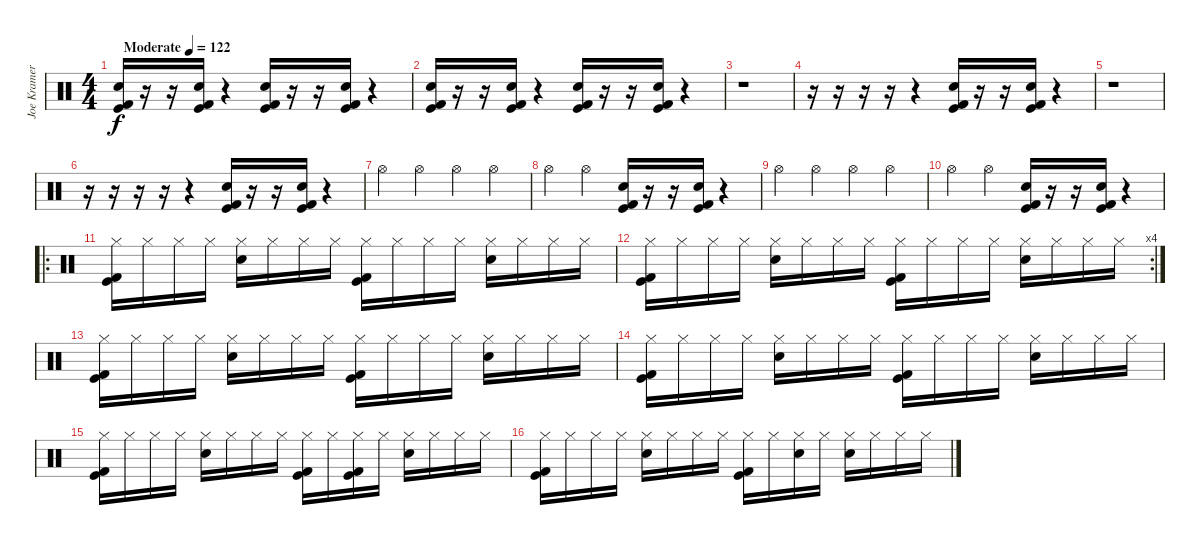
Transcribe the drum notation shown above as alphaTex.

\track ("Joe Kramer" "Joe Kramer") {instrument percussion}
\staff {score}
\articulation defaults
\ts (4 4)
\tempo (122 "Moderate")
\clef neutral
\ks c
("Kick (hit)" "Snare (hit) 2" "Kick (hit) 2").16{dy f} r.16 r.16 ("Kick (hit)" "Snare (hit) 2" "Kick (hit) 2").16 r.4 ("Kick (hit)" "Snare (hit) 2" "Kick (hit) 2").16 r.16 r.16 ("Kick (hit)" "Snare (hit) 2" "Kick (hit) 2").16 r.4 |
("Kick (hit)" "Snare (hit) 2" "Kick (hit) 2").16 r.16 r.16 ("Kick (hit)" "Snare (hit) 2" "Kick (hit) 2").16 r.4 ("Kick (hit)" "Snare (hit) 2" "Kick (hit) 2").16 r.16 r.16 ("Kick (hit)" "Snare (hit) 2" "Kick (hit) 2").16 r.4 |
r.1 |
r.16 r.16 r.16 r.16 r.4 ("Kick (hit)" "Snare (hit) 2" "Kick (hit) 2").16 r.16 r.16 ("Kick (hit)" "Snare (hit) 2" "Kick (hit) 2").16 r.4 |
r.1 |
r.16 r.16 r.16 r.16 r.4 ("Kick (hit)" "Snare (hit) 2" "Kick (hit) 2").16 r.16 r.16 ("Kick (hit)" "Snare (hit) 2" "Kick (hit) 2").16 r.4 |
"Hi-Hat (open)".4 "Hi-Hat (open)".4 "Hi-Hat (open)".4 "Hi-Hat (open)".4 |
"Hi-Hat (open)".4 "Hi-Hat (open)".4 ("Kick (hit)" "Snare (hit) 2" "Kick (hit) 2").16 r.16 r.16 ("Kick (hit)" "Snare (hit) 2" "Kick (hit) 2").16 r.4 |
"Hi-Hat (open)".4 "Hi-Hat (open)".4 "Hi-Hat (open)".4 "Hi-Hat (open)".4 |
"Hi-Hat (open)".4 "Hi-Hat (open)".4 ("Kick (hit)" "Snare (hit) 2" "Kick (hit) 2").16 r.16 r.16 ("Kick (hit)" "Snare (hit) 2" "Kick (hit) 2").16 r.4 |
\ro
("Hi-Hat (closed)" "Kick (hit)" "Kick (hit) 2").16 "Hi-Hat (closed)".16 "Hi-Hat (closed)".16 "Hi-Hat (closed)".16 ("Hi-Hat (closed)" "Snare (hit) 2").16 "Hi-Hat (closed)".16 "Hi-Hat (closed)".16 "Hi-Hat (closed)".16 ("Hi-Hat (closed)" "Kick (hit)" "Kick (hit) 2").16 "Hi-Hat (closed)".16 "Hi-Hat (closed)".16 "Hi-Hat (closed)".16 ("Hi-Hat (closed)" "Snare (hit) 2").16 "Hi-Hat (closed)".16 "Hi-Hat (closed)".16 "Hi-Hat (closed)".16 |
\rc 4
("Hi-Hat (closed)" "Kick (hit)" "Kick (hit) 2").16 "Hi-Hat (closed)".16 "Hi-Hat (closed)".16 "Hi-Hat (closed)".16 ("Hi-Hat (closed)" "Snare (hit) 2").16 "Hi-Hat (closed)".16 "Hi-Hat (closed)".16 "Hi-Hat (closed)".16 ("Hi-Hat (closed)" "Kick (hit)" "Kick (hit) 2").16 "Hi-Hat (closed)".16 "Hi-Hat (closed)".16 "Hi-Hat (closed)".16 ("Hi-Hat (closed)" "Snare (hit) 2").16 "Hi-Hat (closed)".16 "Hi-Hat (closed)".16 "Hi-Hat (closed)".16 |
("Hi-Hat (closed)" "Kick (hit)" "Kick (hit) 2").16 "Hi-Hat (closed)".16 "Hi-Hat (closed)".16 "Hi-Hat (closed)".16 ("Hi-Hat (closed)" "Snare (hit) 2").16 "Hi-Hat (closed)".16 "Hi-Hat (closed)".16 "Hi-Hat (closed)".16 ("Hi-Hat (closed)" "Kick (hit)" "Kick (hit) 2").16 "Hi-Hat (closed)".16 "Hi-Hat (closed)".16 "Hi-Hat (closed)".16 ("Hi-Hat (closed)" "Snare (hit) 2").16 "Hi-Hat (closed)".16 "Hi-Hat (closed)".16 "Hi-Hat (closed)".16 |
("Hi-Hat (closed)" "Kick (hit)" "Kick (hit) 2").16 "Hi-Hat (closed)".16 "Hi-Hat (closed)".16 "Hi-Hat (closed)".16 ("Hi-Hat (closed)" "Snare (hit) 2").16 "Hi-Hat (closed)".16 "Hi-Hat (closed)".16 "Hi-Hat (closed)".16 ("Hi-Hat (closed)" "Kick (hit)" "Kick (hit) 2").16 "Hi-Hat (closed)".16 "Hi-Hat (closed)".16 "Hi-Hat (closed)".16 ("Hi-Hat (closed)" "Snare (hit) 2").16 "Hi-Hat (closed)".16 "Hi-Hat (closed)".16 "Hi-Hat (closed)".16 |
("Hi-Hat (closed)" "Kick (hit)" "Kick (hit) 2").16 "Hi-Hat (closed)".16 "Hi-Hat (closed)".16 "Hi-Hat (closed)".16 ("Hi-Hat (closed)" "Snare (hit) 2").16 "Hi-Hat (closed)".16 "Hi-Hat (closed)".16 "Hi-Hat (closed)".16 ("Hi-Hat (closed)" "Kick (hit)" "Kick (hit) 2").16 "Hi-Hat (closed)".16 ("Hi-Hat (closed)" "Kick (hit)" "Kick (hit) 2").16 "Hi-Hat (closed)".16 ("Hi-Hat (closed)" "Snare (hit) 2").16 "Hi-Hat (closed)".16 "Hi-Hat (closed)".16 "Hi-Hat (closed)".16 |
("Hi-Hat (closed)" "Kick (hit)" "Kick (hit) 2").16 "Hi-Hat (closed)".16 "Hi-Hat (closed)".16 "Hi-Hat (closed)".16 ("Hi-Hat (closed)" "Snare (hit) 2").16 "Hi-Hat (closed)".16 "Hi-Hat (closed)".16 "Hi-Hat (closed)".16 ("Hi-Hat (closed)" "Kick (hit)" "Kick (hit) 2").16 "Hi-Hat (closed)".16 ("Hi-Hat (closed)" "Snare (hit) 2").16 "Hi-Hat (closed)".16 ("Hi-Hat (closed)" "Snare (hit) 2").16 "Hi-Hat (closed)".16 "Hi-Hat (closed)".16 "Hi-Hat (closed)".16
